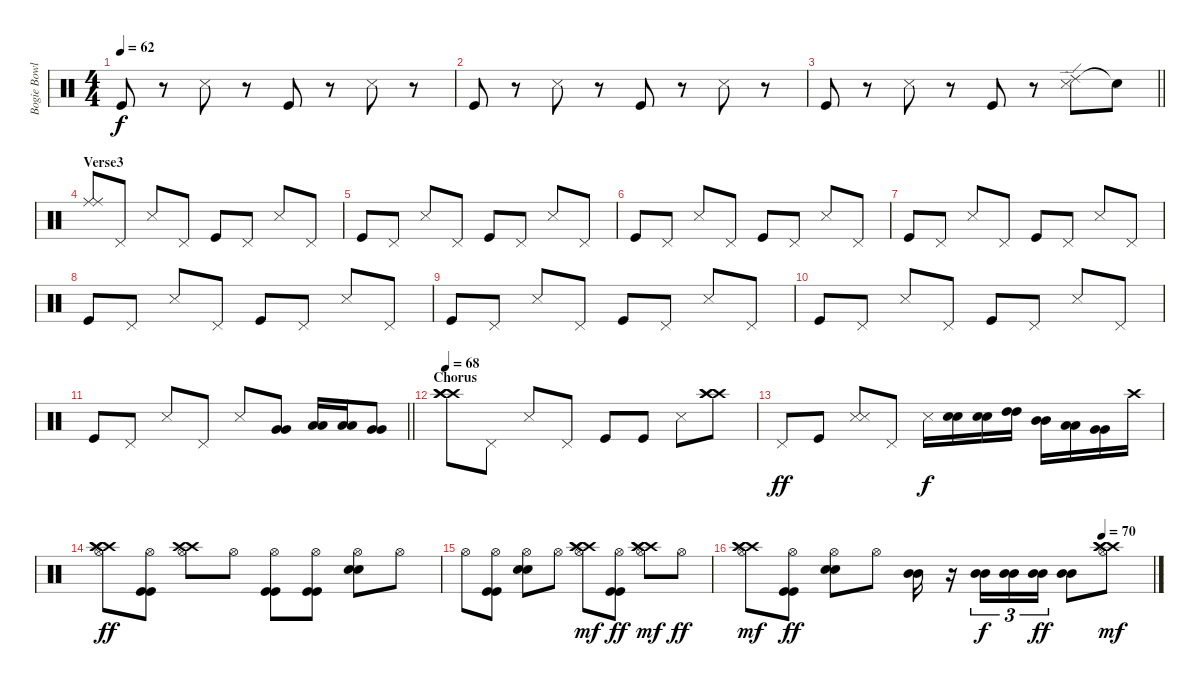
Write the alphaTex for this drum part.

\track ("Bogie Bowles - Drums" "Bogie Bowl") {instrument percussion}
\staff {score}
\articulation defaults
\ts (4 4)
\tempo 62
\clef neutral
\ks c "Kick (hit)".8{dy f}
r.8 "Snare (side stick) 3".8 r.8 "Kick (hit)".8 r.8 "Snare (side stick) 3".8 r.8 |
"Kick (hit)".8 r.8 "Snare (side stick) 3".8 r.8 "Kick (hit)".8 r.8 "Snare (side stick) 3".8 r.8 |
\barLineRight lightlight "Kick (hit)".8
r.8 "Snare (side stick) 3".8 r.8 "Kick (hit)".8 r.8 ("Ride (edge) 2" "Snare (side stick) 3").8 "Snare (hit)"{t}.8 |
\section ("" "Verse3")
("Ride (middle)" "Ride (middle)").8 "Pedal Hi-Hat (hit)".8 "Snare (side stick) 3".8 "Pedal Hi-Hat (hit)".8 "Kick (hit)".8 "Pedal Hi-Hat (hit)".8 "Snare (side stick) 3".8 "Pedal Hi-Hat (hit)".8 |
"Kick (hit)".8 "Pedal Hi-Hat (hit)".8 "Snare (side stick) 3".8 "Pedal Hi-Hat (hit)".8 "Kick (hit)".8 "Pedal Hi-Hat (hit)".8 "Snare (side stick) 3".8 "Pedal Hi-Hat (hit)".8 |
"Kick (hit)".8 "Pedal Hi-Hat (hit)".8 "Snare (side stick) 3".8 "Pedal Hi-Hat (hit)".8 "Kick (hit)".8 "Pedal Hi-Hat (hit)".8 "Snare (side stick) 3".8 "Pedal Hi-Hat (hit)".8 |
"Kick (hit)".8 "Pedal Hi-Hat (hit)".8 "Snare (side stick) 3".8 "Pedal Hi-Hat (hit)".8 "Kick (hit)".8 "Pedal Hi-Hat (hit)".8 "Snare (side stick) 3".8 "Pedal Hi-Hat (hit)".8 |
"Kick (hit)".8 "Pedal Hi-Hat (hit)".8 "Snare (side stick) 3".8 "Pedal Hi-Hat (hit)".8 "Kick (hit)".8 "Pedal Hi-Hat (hit)".8 "Snare (side stick) 3".8 "Pedal Hi-Hat (hit)".8 |
"Kick (hit)".8 "Pedal Hi-Hat (hit)".8 "Snare (side stick) 3".8 "Pedal Hi-Hat (hit)".8 "Kick (hit)".8 "Pedal Hi-Hat (hit)".8 "Snare (side stick) 3".8 "Pedal Hi-Hat (hit)".8 |
"Kick (hit)".8 "Pedal Hi-Hat (hit)".8 "Snare (side stick) 3".8 "Pedal Hi-Hat (hit)".8 "Kick (hit)".8 "Pedal Hi-Hat (hit)".8 "Snare (side stick) 3".8 "Pedal Hi-Hat (hit)".8 |
\barLineRight lightlight "Kick (hit)".8 "Pedal Hi-Hat (hit)".8 "Snare (side stick) 3".8 "Pedal Hi-Hat (hit)".8 "Snare (side stick) 3".8
("Very Low Tom (hit)" "Very Low Tom (hit)").8 ("Low Floor Tom (hit)" "Low Floor Tom (hit)").16 ("Low Floor Tom (hit)" "Low Floor Tom (hit)").16 ("Very Low Tom (hit)" "Very Low Tom (hit)").8 |
\section ("" "Chorus")
\tempo 68
("Crash high (hit)" "Crash high (hit)" "Crash high (hit)").8 "Pedal Hi-Hat (hit)".8 "Snare (side stick) 3".8 "Pedal Hi-Hat (hit)".8 "Kick (hit)".8 "Kick (hit)".8 "Snare (side stick) 3".8 ("Crash high (hit)" "Crash high (hit)" "Crash high (hit)").8 |
"Pedal Hi-Hat (hit)".8{dy ff} "Kick (hit)".8 ("Snare (side stick) 3" "Snare (side stick) 3").8 "Pedal Hi-Hat (hit)".8 "Snare (side stick) 3".16{dy f} ("Snare (hit) 2" "Snare (hit) 2").16 ("Snare (hit) 2" "Snare (hit) 2").16 ("High Tom (hit)" "High Tom (hit)").16 ("Mid Tom (hit)" "Mid Tom (hit)").16 ("Low Tom (hit)" "Low Tom (hit)").16 ("Very Low Tom (hit)" "Very Low Tom (hit)").16 "Crash high (hit)".16 |
("Hi-Hat (open)" "Crash high (hit)" "Crash high (hit)" "Crash high (hit)").8{dy ff} ("Hi-Hat (open)" "Kick (hit)" "Kick (hit)").8 ("Hi-Hat (open)" "Crash high (hit)" "Crash high (hit)").8 "Hi-Hat (open)".8 ("Hi-Hat (open)" "Kick (hit)" "Kick (hit)").8 ("Hi-Hat (open)" "Kick (hit)" "Kick (hit)").8 ("Hi-Hat (open)" "Snare (hit) 2" "Snare (hit) 2").8 "Hi-Hat (open)".8 |
"Hi-Hat (open)".8 ("Hi-Hat (open)" "Kick (hit)" "Kick (hit)").8 ("Hi-Hat (open)" "Snare (hit) 2" "Snare (hit) 2").8 "Hi-Hat (open)".8 ("Hi-Hat (open)" "Crash high (hit)" "Crash high (hit)" "Crash high (hit)").8{dy mf} ("Hi-Hat (open)" "Kick (hit)" "Kick (hit)").8{dy ff} ("Hi-Hat (open)" "Crash high (hit)" "Crash high (hit)" "Crash high (hit)").8{dy mf} "Hi-Hat (open)".8{dy ff} |
\tempo (70 0.875)
("Hi-Hat (open)" "Crash high (hit)" "Crash high (hit)" "Crash high (hit)").8{dy mf} ("Hi-Hat (open)" "Kick (hit)" "Kick (hit)").8{dy ff} ("Hi-Hat (open)" "Snare (hit) 2" "Snare (hit) 2").8 "Hi-Hat (open)".8 ("Mid Tom (hit)" "Mid Tom (hit)").16 r.16 ("Mid Tom (hit)" "Mid Tom (hit)").16{tu (3 2) dy f} ("Mid Tom (hit)" "Mid Tom (hit)").16{tu (3 2)} ("Mid Tom (hit)" "Mid Tom (hit)").16{tu (3 2) dy ff} ("Mid Tom (hit)" "Mid Tom (hit)").8 ("Hi-Hat (open)" "Crash high (hit)" "Crash high (hit)" "Crash high (hit)").8{dy mf}
